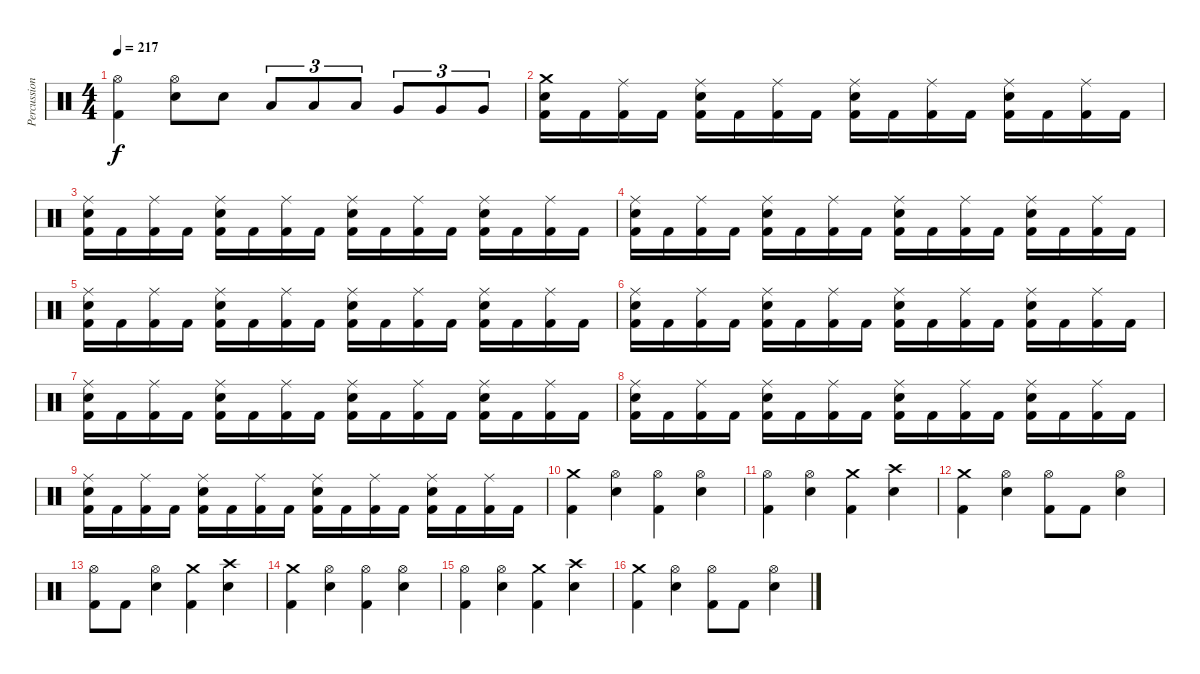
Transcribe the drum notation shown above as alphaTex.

\track ("Percussions" "Percussion") {instrument percussion}
\staff {score}
\articulation defaults
\ts (4 4)
\tempo 217
\clef neutral
\ks c
("Hi-Hat (open)" "Kick (hit) 2").4{dy f} ("Hi-Hat (open)" "Electric Snare (hit)").8 "Electric Snare (hit)".8 "Low Tom (hit)".8{tu (3 2)} "Low Tom (hit)".8{tu (3 2)} "Low Tom (hit)".8{tu (3 2)} "Very Low Tom (hit)".8{tu (3 2)} "Very Low Tom (hit)".8{tu (3 2)} "Very Low Tom (hit)".8{tu (3 2)} |
("Crash medium (hit)" "Electric Snare (hit)" "Kick (hit) 2").16 "Kick (hit) 2".16 ("Ride (middle)" "Kick (hit) 2").16 "Kick (hit) 2".16 ("Ride (middle)" "Electric Snare (hit)" "Kick (hit) 2").16 "Kick (hit) 2".16 ("Ride (middle)" "Kick (hit) 2").16 "Kick (hit) 2".16 ("Ride (middle)" "Electric Snare (hit)" "Kick (hit) 2").16 "Kick (hit) 2".16 ("Ride (middle)" "Kick (hit) 2").16 "Kick (hit) 2".16 ("Ride (middle)" "Electric Snare (hit)" "Kick (hit) 2").16 "Kick (hit) 2".16 ("Ride (middle)" "Kick (hit) 2").16 "Kick (hit) 2".16 |
("Ride (middle)" "Electric Snare (hit)" "Kick (hit) 2").16 "Kick (hit) 2".16 ("Ride (middle)" "Kick (hit) 2").16 "Kick (hit) 2".16 ("Ride (middle)" "Electric Snare (hit)" "Kick (hit) 2").16 "Kick (hit) 2".16 ("Ride (middle)" "Kick (hit) 2").16 "Kick (hit) 2".16 ("Ride (middle)" "Electric Snare (hit)" "Kick (hit) 2").16 "Kick (hit) 2".16 ("Ride (middle)" "Kick (hit) 2").16 "Kick (hit) 2".16 ("Ride (middle)" "Electric Snare (hit)" "Kick (hit) 2").16 "Kick (hit) 2".16 ("Ride (middle)" "Kick (hit) 2").16 "Kick (hit) 2".16 |
("Ride (middle)" "Electric Snare (hit)" "Kick (hit) 2").16 "Kick (hit) 2".16 ("Ride (middle)" "Kick (hit) 2").16 "Kick (hit) 2".16 ("Ride (middle)" "Electric Snare (hit)" "Kick (hit) 2").16 "Kick (hit) 2".16 ("Ride (middle)" "Kick (hit) 2").16 "Kick (hit) 2".16 ("Ride (middle)" "Electric Snare (hit)" "Kick (hit) 2").16 "Kick (hit) 2".16 ("Ride (middle)" "Kick (hit) 2").16 "Kick (hit) 2".16 ("Ride (middle)" "Electric Snare (hit)" "Kick (hit) 2").16 "Kick (hit) 2".16 ("Ride (middle)" "Kick (hit) 2").16 "Kick (hit) 2".16 |
("Ride (middle)" "Electric Snare (hit)" "Kick (hit) 2").16 "Kick (hit) 2".16 ("Ride (middle)" "Kick (hit) 2").16 "Kick (hit) 2".16 ("Ride (middle)" "Electric Snare (hit)" "Kick (hit) 2").16 "Kick (hit) 2".16 ("Ride (middle)" "Kick (hit) 2").16 "Kick (hit) 2".16 ("Ride (middle)" "Electric Snare (hit)" "Kick (hit) 2").16 "Kick (hit) 2".16 ("Ride (middle)" "Kick (hit) 2").16 "Kick (hit) 2".16 ("Ride (middle)" "Electric Snare (hit)" "Kick (hit) 2").16 "Kick (hit) 2".16 ("Ride (middle)" "Kick (hit) 2").16 "Kick (hit) 2".16 |
("Ride (middle)" "Electric Snare (hit)" "Kick (hit) 2").16 "Kick (hit) 2".16 ("Ride (middle)" "Kick (hit) 2").16 "Kick (hit) 2".16 ("Ride (middle)" "Electric Snare (hit)" "Kick (hit) 2").16 "Kick (hit) 2".16 ("Ride (middle)" "Kick (hit) 2").16 "Kick (hit) 2".16 ("Ride (middle)" "Electric Snare (hit)" "Kick (hit) 2").16 "Kick (hit) 2".16 ("Ride (middle)" "Kick (hit) 2").16 "Kick (hit) 2".16 ("Ride (middle)" "Electric Snare (hit)" "Kick (hit) 2").16 "Kick (hit) 2".16 ("Ride (middle)" "Kick (hit) 2").16 "Kick (hit) 2".16 |
("Ride (middle)" "Electric Snare (hit)" "Kick (hit) 2").16 "Kick (hit) 2".16 ("Ride (middle)" "Kick (hit) 2").16 "Kick (hit) 2".16 ("Ride (middle)" "Electric Snare (hit)" "Kick (hit) 2").16 "Kick (hit) 2".16 ("Ride (middle)" "Kick (hit) 2").16 "Kick (hit) 2".16 ("Ride (middle)" "Electric Snare (hit)" "Kick (hit) 2").16 "Kick (hit) 2".16 ("Ride (middle)" "Kick (hit) 2").16 "Kick (hit) 2".16 ("Ride (middle)" "Electric Snare (hit)" "Kick (hit) 2").16 "Kick (hit) 2".16 ("Ride (middle)" "Kick (hit) 2").16 "Kick (hit) 2".16 |
("Ride (middle)" "Electric Snare (hit)" "Kick (hit) 2").16 "Kick (hit) 2".16 ("Ride (middle)" "Kick (hit) 2").16 "Kick (hit) 2".16 ("Ride (middle)" "Electric Snare (hit)" "Kick (hit) 2").16 "Kick (hit) 2".16 ("Ride (middle)" "Kick (hit) 2").16 "Kick (hit) 2".16 ("Ride (middle)" "Electric Snare (hit)" "Kick (hit) 2").16 "Kick (hit) 2".16 ("Ride (middle)" "Kick (hit) 2").16 "Kick (hit) 2".16 ("Ride (middle)" "Electric Snare (hit)" "Kick (hit) 2").16 "Kick (hit) 2".16 ("Ride (middle)" "Kick (hit) 2").16 "Kick (hit) 2".16 |
("Ride (middle)" "Electric Snare (hit)" "Kick (hit) 2").16 "Kick (hit) 2".16 ("Ride (middle)" "Kick (hit) 2").16 "Kick (hit) 2".16 ("Ride (middle)" "Electric Snare (hit)" "Kick (hit) 2").16 "Kick (hit) 2".16 ("Ride (middle)" "Kick (hit) 2").16 "Kick (hit) 2".16 ("Ride (middle)" "Electric Snare (hit)" "Kick (hit) 2").16 "Kick (hit) 2".16 ("Ride (middle)" "Kick (hit) 2").16 "Kick (hit) 2".16 ("Ride (middle)" "Electric Snare (hit)" "Kick (hit) 2").16 "Kick (hit) 2".16 ("Ride (middle)" "Kick (hit) 2").16 "Kick (hit) 2".16 |
("Crash medium (hit)" "Kick (hit) 2").4 ("Hi-Hat (open)" "Electric Snare (hit)").4 ("Hi-Hat (open)" "Kick (hit) 2").4 ("Hi-Hat (open)" "Electric Snare (hit)").4 |
("Hi-Hat (open)" "Kick (hit) 2").4 ("Hi-Hat (open)" "Electric Snare (hit)").4 ("Crash medium (hit)" "Kick (hit) 2").4 ("Crash high (hit)" "Electric Snare (hit)").4 |
("Crash medium (hit)" "Kick (hit) 2").4 ("Hi-Hat (open)" "Electric Snare (hit)").4 ("Hi-Hat (open)" "Kick (hit) 2").8 "Kick (hit) 2".8 ("Hi-Hat (open)" "Electric Snare (hit)").4 |
("Hi-Hat (open)" "Kick (hit) 2").8 "Kick (hit) 2".8 ("Hi-Hat (open)" "Electric Snare (hit)").4 ("Crash medium (hit)" "Kick (hit) 2").4 ("Crash high (hit)" "Electric Snare (hit)").4 |
("Crash medium (hit)" "Kick (hit) 2").4 ("Hi-Hat (open)" "Electric Snare (hit)").4 ("Hi-Hat (open)" "Kick (hit) 2").4 ("Hi-Hat (open)" "Electric Snare (hit)").4 |
("Hi-Hat (open)" "Kick (hit) 2").4 ("Hi-Hat (open)" "Electric Snare (hit)").4 ("Crash medium (hit)" "Kick (hit) 2").4 ("Crash high (hit)" "Electric Snare (hit)").4 |
("Crash medium (hit)" "Kick (hit) 2").4 ("Hi-Hat (open)" "Electric Snare (hit)").4 ("Hi-Hat (open)" "Kick (hit) 2").8 "Kick (hit) 2".8 ("Hi-Hat (open)" "Electric Snare (hit)").4
